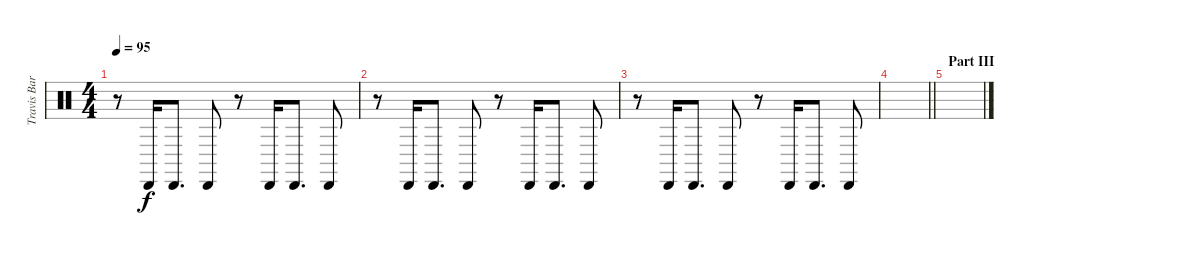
\track ("Travis Barker - Drums Effects" "Travis Bar") {instrument percussion}
\staff {score}
\articulation defaults
\ts (4 4)
\tempo 95
\clef neutral
\ks c
r.8{dy f} "Cabasa (hit)".16 "Cabasa (hit)".8{d} "Cabasa (hit)".8 r.8 "Cabasa (hit)".16 "Cabasa (hit)".8{d} "Cabasa (hit)".8 |
r.8 "Cabasa (hit)".16 "Cabasa (hit)".8{d} "Cabasa (hit)".8 r.8 "Cabasa (hit)".16 "Cabasa (hit)".8{d} "Cabasa (hit)".8 |
r.8 "Cabasa (hit)".16 "Cabasa (hit)".8{d} "Cabasa (hit)".8 r.8 "Cabasa (hit)".16 "Cabasa (hit)".8{d} "Cabasa (hit)".8 |
\barLineRight lightlight
|
\section ("" "Part III")
